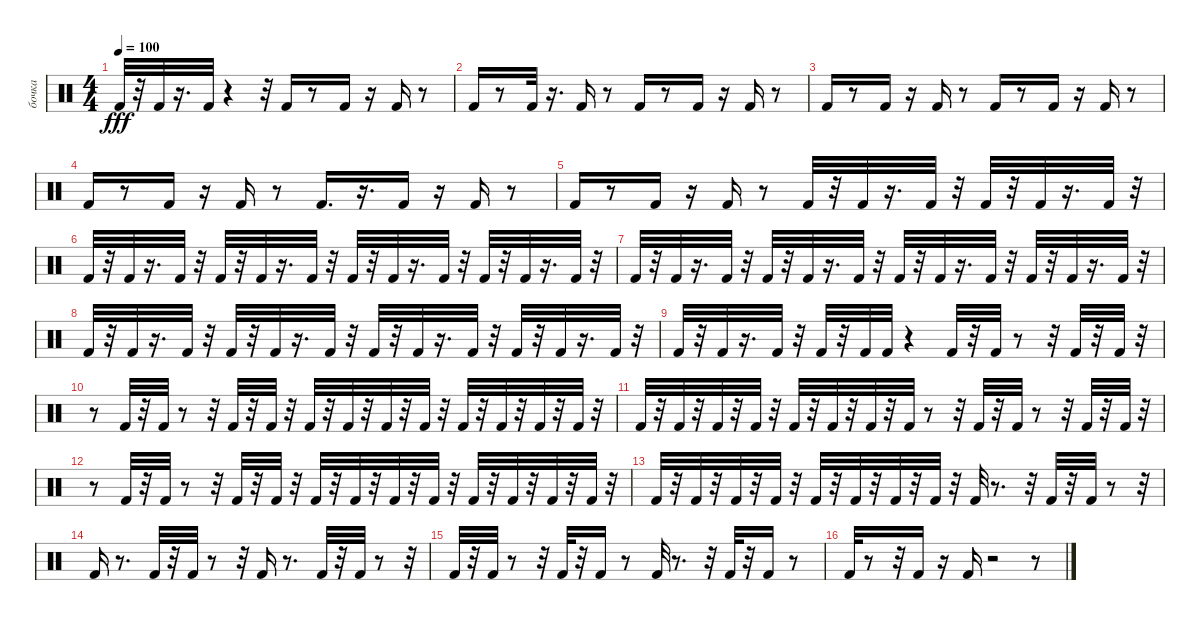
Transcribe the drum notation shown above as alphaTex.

\track ("бочка" "бочка") {instrument percussion}
\staff {score}
\articulation defaults
\ts (4 4)
\tempo 100
\clef neutral
\ks c "Kick (hit) 2".32{dy fff}
r.32 "Kick (hit) 2".32 r.16{d} "Kick (hit) 2".32 r.4 r.32 "Kick (hit) 2".16 r.8 "Kick (hit) 2".16 r.16 "Kick (hit) 2".16 r.8 |
"Kick (hit) 2".16 r.8 "Kick (hit) 2".32 r.16{d} "Kick (hit) 2".16 r.8 "Kick (hit) 2".16 r.8 "Kick (hit) 2".16 r.16 "Kick (hit) 2".16 r.8 |
"Kick (hit) 2".16 r.8 "Kick (hit) 2".16 r.16 "Kick (hit) 2".16 r.8 "Kick (hit) 2".16 r.8 "Kick (hit) 2".16 r.16 "Kick (hit) 2".16 r.8 |
"Kick (hit) 2".16 r.8 "Kick (hit) 2".16 r.16 "Kick (hit) 2".16 r.8 "Kick (hit) 2".16{d} r.16{d} "Kick (hit) 2".16 r.16 "Kick (hit) 2".16 r.8 |
"Kick (hit) 2".16 r.8 "Kick (hit) 2".16 r.16 "Kick (hit) 2".16 r.8 "Kick (hit) 2".32 r.32 "Kick (hit) 2".32 r.16{d} "Kick (hit) 2".32 r.32 "Kick (hit) 2".32 r.32 "Kick (hit) 2".32 r.16{d} "Kick (hit) 2".32 r.32 |
"Kick (hit) 2".32 r.32 "Kick (hit) 2".32 r.16{d} "Kick (hit) 2".32 r.32 "Kick (hit) 2".32 r.32 "Kick (hit) 2".32 r.16{d} "Kick (hit) 2".32 r.32 "Kick (hit) 2".32 r.32 "Kick (hit) 2".32 r.16{d} "Kick (hit) 2".32 r.32 "Kick (hit) 2".32 r.32 "Kick (hit) 2".32 r.16{d} "Kick (hit) 2".32 r.32 |
"Kick (hit) 2".32 r.32 "Kick (hit) 2".32 r.16{d} "Kick (hit) 2".32 r.32 "Kick (hit) 2".32 r.32 "Kick (hit) 2".32 r.16{d} "Kick (hit) 2".32 r.32 "Kick (hit) 2".32 r.32 "Kick (hit) 2".32 r.16{d} "Kick (hit) 2".32 r.32 "Kick (hit) 2".32 r.32 "Kick (hit) 2".32 r.16{d} "Kick (hit) 2".32 r.32 |
"Kick (hit) 2".32 r.32 "Kick (hit) 2".32 r.16{d} "Kick (hit) 2".32 r.32 "Kick (hit) 2".32 r.32 "Kick (hit) 2".32 r.16{d} "Kick (hit) 2".32 r.32 "Kick (hit) 2".32 r.32 "Kick (hit) 2".32 r.16{d} "Kick (hit) 2".32 r.32 "Kick (hit) 2".32 r.32 "Kick (hit) 2".32 r.16{d} "Kick (hit) 2".32 r.32 |
"Kick (hit) 2".32 r.32 "Kick (hit) 2".32 r.16{d} "Kick (hit) 2".32 r.32 "Kick (hit) 2".32 r.32 "Kick (hit) 2".32 "Kick (hit) 2".32 r.4 "Kick (hit) 2".32 r.32 "Kick (hit) 2".32 r.8 r.32 "Kick (hit) 2".32 r.32 "Kick (hit) 2".32 r.32 |
r.8 "Kick (hit) 2".32 r.32 "Kick (hit) 2".32 r.8 r.32 "Kick (hit) 2".32 r.32 "Kick (hit) 2".32 r.32 "Kick (hit) 2".32 r.32 "Kick (hit) 2".32 r.32 "Kick (hit) 2".32 r.32 "Kick (hit) 2".32 r.32 "Kick (hit) 2".32 r.32 "Kick (hit) 2".32 r.32 "Kick (hit) 2".32 r.32 "Kick (hit) 2".32 r.32 |
"Kick (hit) 2".32 r.32 "Kick (hit) 2".32 r.32 "Kick (hit) 2".32 r.32 "Kick (hit) 2".32 r.32 "Kick (hit) 2".32 r.32 "Kick (hit) 2".32 r.32 "Kick (hit) 2".32 r.32 "Kick (hit) 2".32 r.8 r.32 "Kick (hit) 2".32 r.32 "Kick (hit) 2".32 r.8 r.32 "Kick (hit) 2".32 r.32 "Kick (hit) 2".32 r.32 |
r.8 "Kick (hit) 2".32 r.32 "Kick (hit) 2".32 r.8 r.32 "Kick (hit) 2".32 r.32 "Kick (hit) 2".32 r.32 "Kick (hit) 2".32 r.32 "Kick (hit) 2".32 r.32 "Kick (hit) 2".32 r.32 "Kick (hit) 2".32 r.32 "Kick (hit) 2".32 r.32 "Kick (hit) 2".32 r.32 "Kick (hit) 2".32 r.32 "Kick (hit) 2".32 r.32 |
"Kick (hit) 2".32 r.32 "Kick (hit) 2".32 r.32 "Kick (hit) 2".32 r.32 "Kick (hit) 2".32 r.32 "Kick (hit) 2".32 r.32 "Kick (hit) 2".32 r.32 "Kick (hit) 2".32 r.32 "Kick (hit) 2".32 r.32 "Kick (hit) 2".32 r.8{d} r.32 "Kick (hit) 2".32 r.32 "Kick (hit) 2".32 r.8 r.32 |
"Kick (hit) 2".16 r.8{d} "Kick (hit) 2".32 r.32 "Kick (hit) 2".32 r.8 r.32 "Kick (hit) 2".16 r.8{d} "Kick (hit) 2".32 r.32 "Kick (hit) 2".32 r.8 r.32 |
"Kick (hit) 2".32 r.32 "Kick (hit) 2".32 r.8 r.32 "Kick (hit) 2".32 r.32 "Kick (hit) 2".16 r.8 "Kick (hit) 2".32 r.8{d} r.32 "Kick (hit) 2".32 r.32 "Kick (hit) 2".16 r.8 |
"Kick (hit) 2".32 r.8 r.32 "Kick (hit) 2".16 r.16 "Kick (hit) 2".16 r.2 r.8
